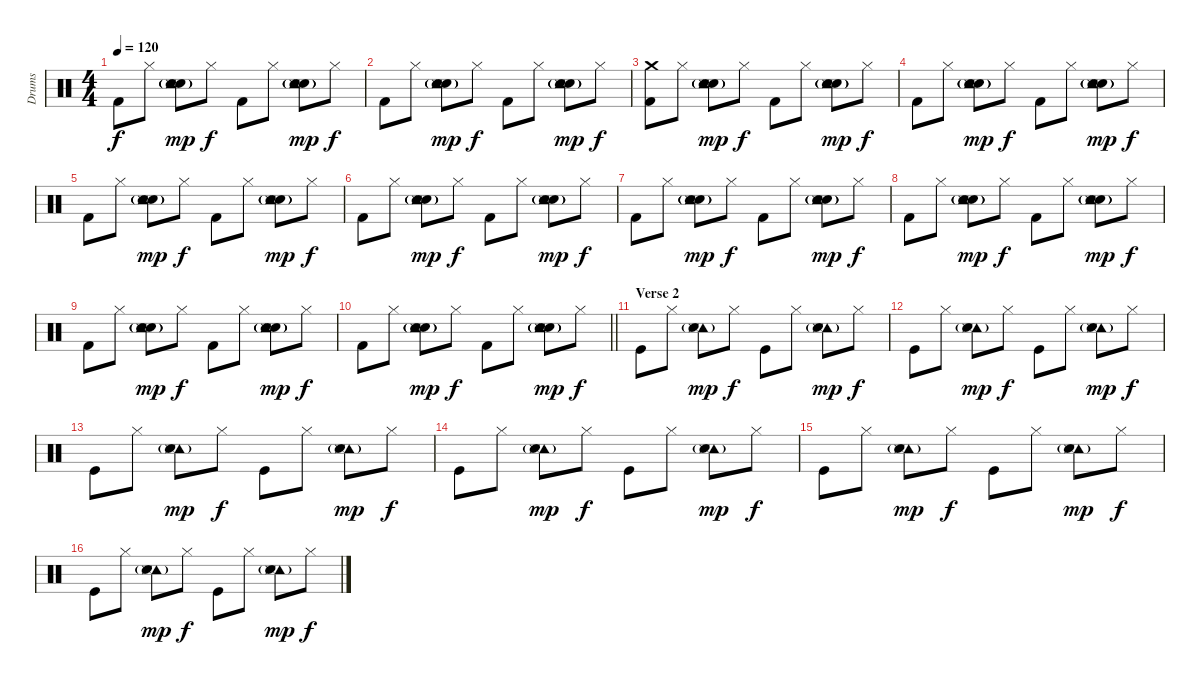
\track ("Drums" "Drums") {instrument percussion}
\staff {score}
\articulation defaults
\ts (4 4)
\tempo 120
\clef neutral
\ks c "Kick (hit) 2".8{dy f} "Hi-Hat (closed)".8
("Snare (hit) 2"{g} "Tambourine (hit)"{g} "Electric Snare (hit)" "Snare (side stick) 3"{g}).8{dy mp} "Hi-Hat (closed)".8{dy f} "Kick (hit) 2".8 "Hi-Hat (closed)".8 ("Snare (hit) 2"{g} "Tambourine (hit)"{g} "Electric Snare (hit)" "Snare (side stick) 3"{g}).8{dy mp} "Hi-Hat (closed)".8{dy f} |
"Kick (hit) 2".8 "Hi-Hat (closed)".8 ("Snare (hit) 2"{g} "Tambourine (hit)"{g} "Electric Snare (hit)" "Snare (side stick) 3"{g}).8{dy mp} "Hi-Hat (closed)".8{dy f} "Kick (hit) 2".8 "Hi-Hat (closed)".8 ("Snare (hit) 2"{g} "Tambourine (hit)"{g} "Electric Snare (hit)" "Snare (side stick) 3"{g}).8{dy mp} "Hi-Hat (closed)".8{dy f} |
("Crash medium (hit)" "Kick (hit) 2").8 "Hi-Hat (closed)".8 ("Snare (hit) 2"{g} "Tambourine (hit)"{g} "Electric Snare (hit)" "Snare (side stick) 3"{g}).8{dy mp} "Hi-Hat (closed)".8{dy f} "Kick (hit) 2".8 "Hi-Hat (closed)".8 ("Snare (hit) 2"{g} "Tambourine (hit)"{g} "Electric Snare (hit)" "Snare (side stick) 3"{g}).8{dy mp} "Hi-Hat (closed)".8{dy f} |
"Kick (hit) 2".8 "Hi-Hat (closed)".8 ("Snare (hit) 2"{g} "Tambourine (hit)"{g} "Electric Snare (hit)" "Snare (side stick) 3"{g}).8{dy mp} "Hi-Hat (closed)".8{dy f} "Kick (hit) 2".8 "Hi-Hat (closed)".8 ("Snare (hit) 2"{g} "Tambourine (hit)"{g} "Electric Snare (hit)" "Snare (side stick) 3"{g}).8{dy mp} "Hi-Hat (closed)".8{dy f} |
"Kick (hit) 2".8 "Hi-Hat (closed)".8 ("Snare (hit) 2"{g} "Tambourine (hit)"{g} "Electric Snare (hit)" "Snare (side stick) 3"{g}).8{dy mp} "Hi-Hat (closed)".8{dy f} "Kick (hit) 2".8 "Hi-Hat (closed)".8 ("Snare (hit) 2"{g} "Tambourine (hit)"{g} "Electric Snare (hit)" "Snare (side stick) 3"{g}).8{dy mp} "Hi-Hat (closed)".8{dy f} |
"Kick (hit) 2".8 "Hi-Hat (closed)".8 ("Snare (hit) 2"{g} "Tambourine (hit)"{g} "Electric Snare (hit)" "Snare (side stick) 3"{g}).8{dy mp} "Hi-Hat (closed)".8{dy f} "Kick (hit) 2".8 "Hi-Hat (closed)".8 ("Snare (hit) 2"{g} "Tambourine (hit)"{g} "Electric Snare (hit)" "Snare (side stick) 3"{g}).8{dy mp} "Hi-Hat (closed)".8{dy f} |
"Kick (hit) 2".8 "Hi-Hat (closed)".8 ("Snare (hit) 2"{g} "Tambourine (hit)"{g} "Electric Snare (hit)" "Snare (side stick) 3"{g}).8{dy mp} "Hi-Hat (closed)".8{dy f} "Kick (hit) 2".8 "Hi-Hat (closed)".8 ("Snare (hit) 2"{g} "Tambourine (hit)"{g} "Electric Snare (hit)" "Snare (side stick) 3"{g}).8{dy mp} "Hi-Hat (closed)".8{dy f} |
"Kick (hit) 2".8 "Hi-Hat (closed)".8 ("Snare (hit) 2"{g} "Tambourine (hit)"{g} "Electric Snare (hit)" "Snare (side stick) 3"{g}).8{dy mp} "Hi-Hat (closed)".8{dy f} "Kick (hit) 2".8 "Hi-Hat (closed)".8 ("Snare (hit) 2"{g} "Tambourine (hit)"{g} "Electric Snare (hit)" "Snare (side stick) 3"{g}).8{dy mp} "Hi-Hat (closed)".8{dy f} |
"Kick (hit) 2".8 "Hi-Hat (closed)".8 ("Snare (hit) 2"{g} "Tambourine (hit)"{g} "Electric Snare (hit)" "Snare (side stick) 3"{g}).8{dy mp} "Hi-Hat (closed)".8{dy f} "Kick (hit) 2".8 "Hi-Hat (closed)".8 ("Snare (hit) 2"{g} "Tambourine (hit)"{g} "Electric Snare (hit)" "Snare (side stick) 3"{g}).8{dy mp} "Hi-Hat (closed)".8{dy f} |
\barLineRight lightlight "Kick (hit) 2".8 "Hi-Hat (closed)".8
("Snare (hit) 2"{g} "Tambourine (hit)"{g} "Electric Snare (hit)" "Snare (side stick) 3"{g}).8{dy mp} "Hi-Hat (closed)".8{dy f} "Kick (hit) 2".8 "Hi-Hat (closed)".8 ("Snare (hit) 2"{g} "Tambourine (hit)"{g} "Electric Snare (hit)" "Snare (side stick) 3"{g}).8{dy mp} "Hi-Hat (closed)".8{dy f} |
\section ("" "Verse 2")
"Kick (hit)".8{volume 10 balance 7} "Hi-Hat (closed)".8 ("Tambourine (hit)" "Electric Snare (hit)" "Snare (side stick) 3"{g}).8{dy mp} "Hi-Hat (closed)".8{dy f} "Kick (hit)".8 "Hi-Hat (closed)".8 ("Tambourine (hit)" "Electric Snare (hit)" "Snare (side stick) 3"{g}).8{dy mp} "Hi-Hat (closed)".8{dy f} |
"Kick (hit)".8 "Hi-Hat (closed)".8 ("Tambourine (hit)" "Electric Snare (hit)" "Snare (side stick) 3"{g}).8{dy mp} "Hi-Hat (closed)".8{dy f} "Kick (hit)".8 "Hi-Hat (closed)".8 ("Tambourine (hit)" "Electric Snare (hit)" "Snare (side stick) 3"{g}).8{dy mp} "Hi-Hat (closed)".8{dy f} |
"Kick (hit)".8 "Hi-Hat (closed)".8 ("Tambourine (hit)" "Electric Snare (hit)" "Snare (side stick) 3"{g}).8{dy mp} "Hi-Hat (closed)".8{dy f} "Kick (hit)".8 "Hi-Hat (closed)".8 ("Tambourine (hit)" "Electric Snare (hit)" "Snare (side stick) 3"{g}).8{dy mp} "Hi-Hat (closed)".8{dy f} |
"Kick (hit)".8 "Hi-Hat (closed)".8 ("Tambourine (hit)" "Electric Snare (hit)" "Snare (side stick) 3"{g}).8{dy mp} "Hi-Hat (closed)".8{dy f} "Kick (hit)".8 "Hi-Hat (closed)".8 ("Tambourine (hit)" "Electric Snare (hit)" "Snare (side stick) 3"{g}).8{dy mp} "Hi-Hat (closed)".8{dy f} |
"Kick (hit)".8 "Hi-Hat (closed)".8 ("Tambourine (hit)" "Electric Snare (hit)" "Snare (side stick) 3"{g}).8{dy mp} "Hi-Hat (closed)".8{dy f} "Kick (hit)".8 "Hi-Hat (closed)".8 ("Tambourine (hit)" "Electric Snare (hit)" "Snare (side stick) 3"{g}).8{dy mp} "Hi-Hat (closed)".8{dy f} |
"Kick (hit)".8 "Hi-Hat (closed)".8 ("Tambourine (hit)" "Electric Snare (hit)" "Snare (side stick) 3"{g}).8{dy mp} "Hi-Hat (closed)".8{dy f} "Kick (hit)".8 "Hi-Hat (closed)".8 ("Tambourine (hit)" "Electric Snare (hit)" "Snare (side stick) 3"{g}).8{dy mp} "Hi-Hat (closed)".8{dy f}
